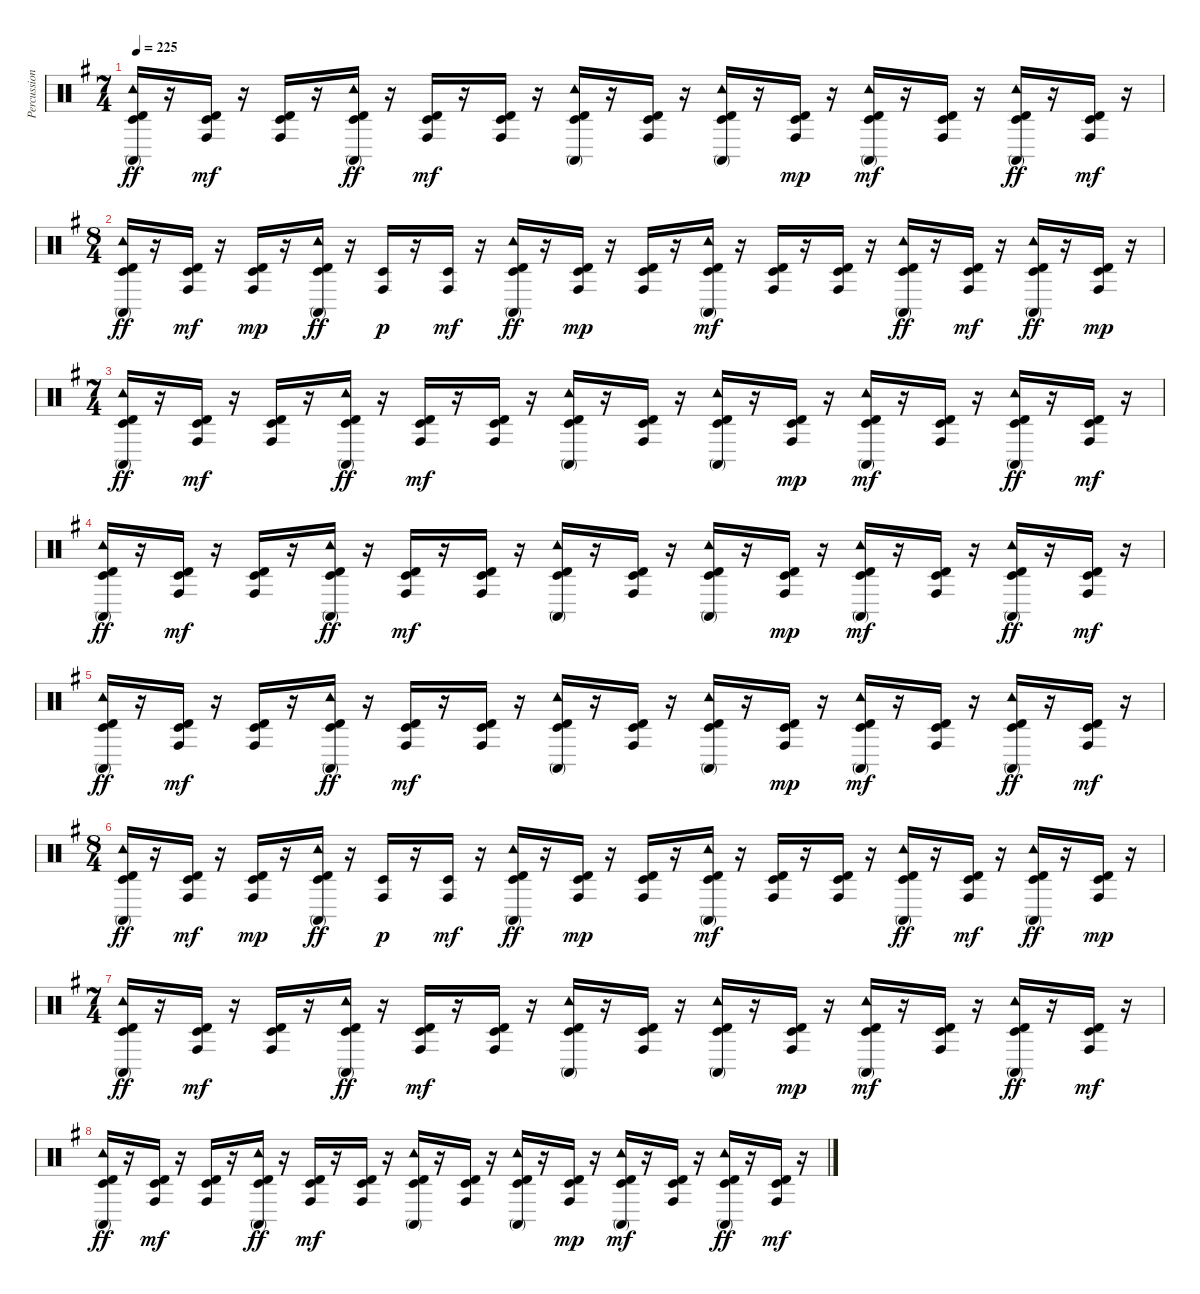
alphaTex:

\track ("Percussion" "Percussion") {instrument percussion}
\staff {score}
\articulation defaults
\ts (7 4)
\tempo 225
\clef neutral
\ks g
("Timbale high (hit)" "Timbale low (hit)" "Tambourine (hit)" "Conga high (mute)").16{dy ff} r.16 ("Timbale low (hit)" "Timbale high (hit)" "Conga high (hit)").16{dy mf} r.16 ("Timbale high (hit)" "Conga high (hit)" "Timbale low (hit)").16 r.16 ("Tambourine (hit)" "Timbale high (hit)" "Timbale low (hit)" "Conga high (mute)").16{dy ff} r.16 ("Timbale low (hit)" "Conga high (hit)" "Timbale high (hit)").16{dy mf} r.16 ("Timbale low (hit)" "Timbale high (hit)" "Conga high (hit)").16 r.16 ("Tambourine (hit)" "Conga high (mute)" "Timbale high (hit)" "Timbale low (hit)").16 r.16 ("Conga high (hit)" "Timbale low (hit)" "Timbale high (hit)").16 r.16 ("Tambourine (hit)" "Timbale high (hit)" "Conga high (mute)" "Timbale low (hit)").16 r.16 ("Conga high (hit)" "Timbale high (hit)" "Timbale low (hit)").16{dy mp} r.16 ("Tambourine (hit)" "Conga high (mute)" "Timbale high (hit)" "Timbale low (hit)").16{dy mf} r.16 ("Timbale low (hit)" "Conga high (hit)" "Timbale high (hit)").16 r.16 ("Tambourine (hit)" "Conga high (mute)" "Timbale high (hit)" "Timbale low (hit)").16{dy ff} r.16 ("Conga high (hit)" "Timbale high (hit)" "Timbale low (hit)").16{dy mf} r.16 |
\ts (8 4)
("Timbale low (hit)" "Timbale high (hit)" "Conga high (mute)" "Tambourine (hit)").16{dy ff} r.16 ("Timbale low (hit)" "Timbale high (hit)" "Conga high (hit)").16{dy mf} r.16 ("Timbale high (hit)" "Conga high (hit)" "Timbale low (hit)").16{dy mp} r.16 ("Timbale low (hit)" "Timbale high (hit)" "Tambourine (hit)" "Conga high (mute)").16{dy ff} r.16 ("Conga high (hit)" "Timbale low (hit)").16{dy p} r.16 ("Timbale low (hit)" "Conga high (hit)").16{dy mf} r.16 ("Tambourine (hit)" "Timbale high (hit)" "Timbale low (hit)" "Conga high (mute)").16{dy ff} r.16 ("Timbale high (hit)" "Conga high (hit)" "Timbale low (hit)").16{dy mp} r.16 ("Timbale high (hit)" "Conga high (hit)" "Timbale low (hit)").16 r.16 ("Timbale high (hit)" "Conga high (mute)" "Tambourine (hit)" "Timbale low (hit)").16{dy mf} r.16 ("Timbale high (hit)" "Timbale low (hit)" "Conga high (hit)").16 r.16 ("Timbale high (hit)" "Timbale low (hit)" "Conga high (hit)").16 r.16 ("Timbale low (hit)" "Timbale high (hit)" "Tambourine (hit)" "Conga high (mute)").16{dy ff} r.16 ("Timbale high (hit)" "Timbale low (hit)" "Conga high (hit)").16{dy mf} r.16 ("Timbale low (hit)" "Timbale high (hit)" "Tambourine (hit)" "Conga high (mute)").16{dy ff} r.16 ("Timbale high (hit)" "Conga high (hit)" "Timbale low (hit)").16{dy mp} r.16 |
\ts (7 4)
("Timbale high (hit)" "Timbale low (hit)" "Tambourine (hit)" "Conga high (mute)").16{dy ff} r.16 ("Timbale low (hit)" "Timbale high (hit)" "Conga high (hit)").16{dy mf} r.16 ("Timbale high (hit)" "Conga high (hit)" "Timbale low (hit)").16 r.16 ("Tambourine (hit)" "Timbale high (hit)" "Timbale low (hit)" "Conga high (mute)").16{dy ff} r.16 ("Timbale low (hit)" "Conga high (hit)" "Timbale high (hit)").16{dy mf} r.16 ("Timbale low (hit)" "Timbale high (hit)" "Conga high (hit)").16 r.16 ("Tambourine (hit)" "Conga high (mute)" "Timbale high (hit)" "Timbale low (hit)").16 r.16 ("Conga high (hit)" "Timbale low (hit)" "Timbale high (hit)").16 r.16 ("Tambourine (hit)" "Timbale high (hit)" "Conga high (mute)" "Timbale low (hit)").16 r.16 ("Conga high (hit)" "Timbale high (hit)" "Timbale low (hit)").16{dy mp} r.16 ("Tambourine (hit)" "Conga high (mute)" "Timbale high (hit)" "Timbale low (hit)").16{dy mf} r.16 ("Timbale low (hit)" "Conga high (hit)" "Timbale high (hit)").16 r.16 ("Tambourine (hit)" "Conga high (mute)" "Timbale high (hit)" "Timbale low (hit)").16{dy ff} r.16 ("Conga high (hit)" "Timbale high (hit)" "Timbale low (hit)").16{dy mf} r.16 |
("Timbale high (hit)" "Timbale low (hit)" "Tambourine (hit)" "Conga high (mute)").16{dy ff} r.16 ("Timbale low (hit)" "Timbale high (hit)" "Conga high (hit)").16{dy mf} r.16 ("Timbale high (hit)" "Conga high (hit)" "Timbale low (hit)").16 r.16 ("Tambourine (hit)" "Timbale high (hit)" "Timbale low (hit)" "Conga high (mute)").16{dy ff} r.16 ("Timbale low (hit)" "Conga high (hit)" "Timbale high (hit)").16{dy mf} r.16 ("Timbale low (hit)" "Timbale high (hit)" "Conga high (hit)").16 r.16 ("Tambourine (hit)" "Conga high (mute)" "Timbale high (hit)" "Timbale low (hit)").16 r.16 ("Conga high (hit)" "Timbale low (hit)" "Timbale high (hit)").16 r.16 ("Tambourine (hit)" "Timbale high (hit)" "Conga high (mute)" "Timbale low (hit)").16 r.16 ("Conga high (hit)" "Timbale high (hit)" "Timbale low (hit)").16{dy mp} r.16 ("Tambourine (hit)" "Conga high (mute)" "Timbale high (hit)" "Timbale low (hit)").16{dy mf} r.16 ("Timbale low (hit)" "Conga high (hit)" "Timbale high (hit)").16 r.16 ("Tambourine (hit)" "Conga high (mute)" "Timbale high (hit)" "Timbale low (hit)").16{dy ff} r.16 ("Conga high (hit)" "Timbale high (hit)" "Timbale low (hit)").16{dy mf} r.16 |
("Timbale high (hit)" "Timbale low (hit)" "Tambourine (hit)" "Conga high (mute)").16{dy ff} r.16 ("Timbale low (hit)" "Timbale high (hit)" "Conga high (hit)").16{dy mf} r.16 ("Timbale high (hit)" "Conga high (hit)" "Timbale low (hit)").16 r.16 ("Tambourine (hit)" "Timbale high (hit)" "Timbale low (hit)" "Conga high (mute)").16{dy ff} r.16 ("Timbale low (hit)" "Conga high (hit)" "Timbale high (hit)").16{dy mf} r.16 ("Timbale low (hit)" "Timbale high (hit)" "Conga high (hit)").16 r.16 ("Tambourine (hit)" "Conga high (mute)" "Timbale high (hit)" "Timbale low (hit)").16 r.16 ("Conga high (hit)" "Timbale low (hit)" "Timbale high (hit)").16 r.16 ("Tambourine (hit)" "Timbale high (hit)" "Conga high (mute)" "Timbale low (hit)").16 r.16 ("Conga high (hit)" "Timbale high (hit)" "Timbale low (hit)").16{dy mp} r.16 ("Tambourine (hit)" "Conga high (mute)" "Timbale high (hit)" "Timbale low (hit)").16{dy mf} r.16 ("Timbale low (hit)" "Conga high (hit)" "Timbale high (hit)").16 r.16 ("Tambourine (hit)" "Conga high (mute)" "Timbale high (hit)" "Timbale low (hit)").16{dy ff} r.16 ("Conga high (hit)" "Timbale high (hit)" "Timbale low (hit)").16{dy mf} r.16 |
\ts (8 4)
("Timbale low (hit)" "Timbale high (hit)" "Conga high (mute)" "Tambourine (hit)").16{dy ff} r.16 ("Timbale low (hit)" "Timbale high (hit)" "Conga high (hit)").16{dy mf} r.16 ("Timbale high (hit)" "Conga high (hit)" "Timbale low (hit)").16{dy mp} r.16 ("Timbale low (hit)" "Timbale high (hit)" "Tambourine (hit)" "Conga high (mute)").16{dy ff} r.16 ("Conga high (hit)" "Timbale low (hit)").16{dy p} r.16 ("Timbale low (hit)" "Conga high (hit)").16{dy mf} r.16 ("Tambourine (hit)" "Timbale high (hit)" "Timbale low (hit)" "Conga high (mute)").16{dy ff} r.16 ("Timbale high (hit)" "Conga high (hit)" "Timbale low (hit)").16{dy mp} r.16 ("Timbale high (hit)" "Conga high (hit)" "Timbale low (hit)").16 r.16 ("Timbale high (hit)" "Conga high (mute)" "Tambourine (hit)" "Timbale low (hit)").16{dy mf} r.16 ("Timbale high (hit)" "Timbale low (hit)" "Conga high (hit)").16 r.16 ("Timbale high (hit)" "Timbale low (hit)" "Conga high (hit)").16 r.16 ("Timbale low (hit)" "Timbale high (hit)" "Tambourine (hit)" "Conga high (mute)").16{dy ff} r.16 ("Timbale high (hit)" "Timbale low (hit)" "Conga high (hit)").16{dy mf} r.16 ("Timbale low (hit)" "Timbale high (hit)" "Tambourine (hit)" "Conga high (mute)").16{dy ff} r.16 ("Timbale high (hit)" "Conga high (hit)" "Timbale low (hit)").16{dy mp} r.16 |
\ts (7 4)
("Timbale high (hit)" "Timbale low (hit)" "Tambourine (hit)" "Conga high (mute)").16{dy ff} r.16 ("Timbale low (hit)" "Timbale high (hit)" "Conga high (hit)").16{dy mf} r.16 ("Timbale high (hit)" "Conga high (hit)" "Timbale low (hit)").16 r.16 ("Tambourine (hit)" "Timbale high (hit)" "Timbale low (hit)" "Conga high (mute)").16{dy ff} r.16 ("Timbale low (hit)" "Conga high (hit)" "Timbale high (hit)").16{dy mf} r.16 ("Timbale low (hit)" "Timbale high (hit)" "Conga high (hit)").16 r.16 ("Tambourine (hit)" "Conga high (mute)" "Timbale high (hit)" "Timbale low (hit)").16 r.16 ("Conga high (hit)" "Timbale low (hit)" "Timbale high (hit)").16 r.16 ("Tambourine (hit)" "Timbale high (hit)" "Conga high (mute)" "Timbale low (hit)").16 r.16 ("Conga high (hit)" "Timbale high (hit)" "Timbale low (hit)").16{dy mp} r.16 ("Tambourine (hit)" "Conga high (mute)" "Timbale high (hit)" "Timbale low (hit)").16{dy mf} r.16 ("Timbale low (hit)" "Conga high (hit)" "Timbale high (hit)").16 r.16 ("Tambourine (hit)" "Conga high (mute)" "Timbale high (hit)" "Timbale low (hit)").16{dy ff} r.16 ("Conga high (hit)" "Timbale high (hit)" "Timbale low (hit)").16{dy mf} r.16 |
("Timbale high (hit)" "Timbale low (hit)" "Tambourine (hit)" "Conga high (mute)").16{dy ff} r.16 ("Timbale low (hit)" "Timbale high (hit)" "Conga high (hit)").16{dy mf} r.16 ("Timbale high (hit)" "Conga high (hit)" "Timbale low (hit)").16 r.16 ("Tambourine (hit)" "Timbale high (hit)" "Timbale low (hit)" "Conga high (mute)").16{dy ff} r.16 ("Timbale low (hit)" "Conga high (hit)" "Timbale high (hit)").16{dy mf} r.16 ("Timbale low (hit)" "Timbale high (hit)" "Conga high (hit)").16 r.16 ("Tambourine (hit)" "Conga high (mute)" "Timbale high (hit)" "Timbale low (hit)").16 r.16 ("Conga high (hit)" "Timbale low (hit)" "Timbale high (hit)").16 r.16 ("Tambourine (hit)" "Timbale high (hit)" "Conga high (mute)" "Timbale low (hit)").16 r.16 ("Conga high (hit)" "Timbale high (hit)" "Timbale low (hit)").16{dy mp} r.16 ("Tambourine (hit)" "Conga high (mute)" "Timbale high (hit)" "Timbale low (hit)").16{dy mf} r.16 ("Timbale low (hit)" "Conga high (hit)" "Timbale high (hit)").16 r.16 ("Tambourine (hit)" "Conga high (mute)" "Timbale high (hit)" "Timbale low (hit)").16{dy ff} r.16 ("Conga high (hit)" "Timbale high (hit)" "Timbale low (hit)").16{dy mf} r.16
